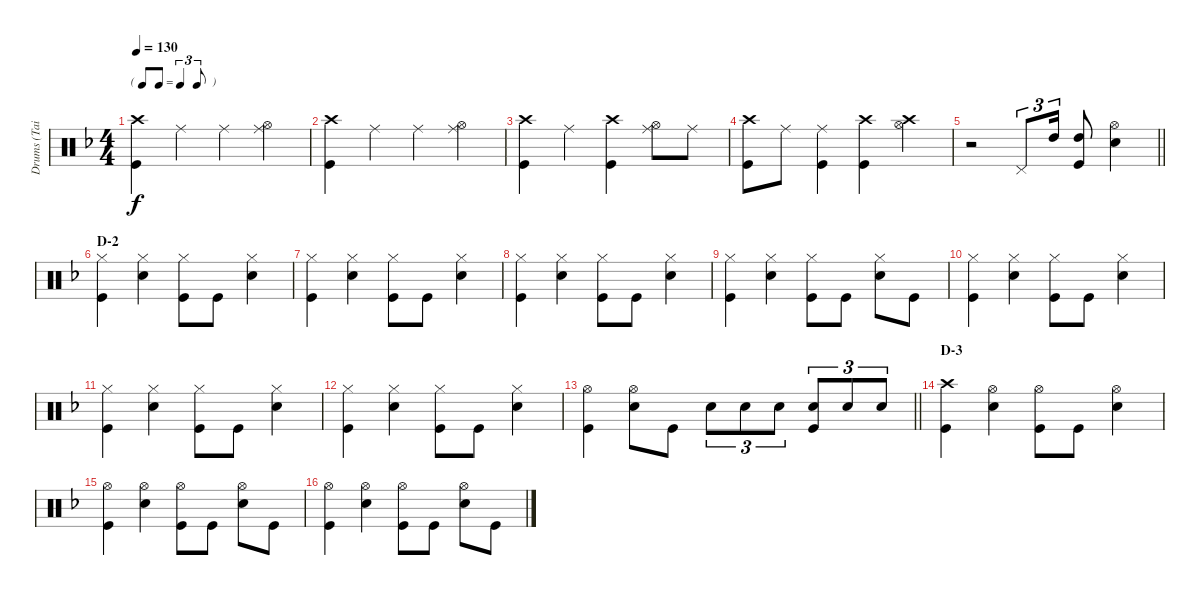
\track ("Drums (Tainaka Ritsu)" "Drums (Tai") {instrument percussion}
\staff {score}
\articulation defaults
\ts (4 4)
\tf triplet8th
\tempo 130
\clef neutral
\ks f
("Crash high (hit)" "Kick (hit)").4{dy f} "Ride (middle)".4 "Ride (middle)".4 ("Ride (middle)" "Hi-Hat (open)").4 |
("Crash high (hit)" "Kick (hit)").4 "Ride (middle)".4 "Ride (middle)".4 ("Ride (middle)" "Hi-Hat (open)").4 |
("Crash high (hit)" "Kick (hit)").4 "Ride (middle)".4 ("Crash high (hit)" "Kick (hit)").4 ("Ride (middle)" "Hi-Hat (open)").8 "Ride (middle)".8 |
("Crash high (hit)" "Kick (hit)").8 "Ride (middle)".8 ("Ride (middle)" "Kick (hit)").4 ("Crash high (hit)" "Kick (hit)").4 ("Crash high (hit)" "Hi-Hat (open)").4 |
\barLineRight lightlight
r.2 "Pedal Hi-Hat (hit)".8{tu (3 2)} "High Tom (hit)".16{tu (3 2)} ("High Tom (hit)" "Kick (hit)").8 ("Hi-Hat (open)" "Snare (hit) 2").4 |
\section ("" "D-2")
("Hi-Hat (closed)" "Kick (hit)").4 ("Hi-Hat (closed)" "Snare (hit) 2").4 ("Hi-Hat (closed)" "Kick (hit)").8 "Kick (hit)".8 ("Hi-Hat (closed)" "Snare (hit) 2").4 |
("Hi-Hat (closed)" "Kick (hit)").4 ("Hi-Hat (closed)" "Snare (hit) 2").4 ("Hi-Hat (closed)" "Kick (hit)").8 "Kick (hit)".8 ("Hi-Hat (closed)" "Snare (hit) 2").4 |
("Hi-Hat (closed)" "Kick (hit)").4 ("Hi-Hat (closed)" "Snare (hit) 2").4 ("Hi-Hat (closed)" "Kick (hit)").8 "Kick (hit)".8 ("Hi-Hat (closed)" "Snare (hit) 2").4 |
("Hi-Hat (closed)" "Kick (hit)").4 ("Hi-Hat (closed)" "Snare (hit) 2").4 ("Hi-Hat (closed)" "Kick (hit)").8 "Kick (hit)".8 ("Hi-Hat (closed)" "Snare (hit) 2").8 "Kick (hit)".8 |
("Hi-Hat (closed)" "Kick (hit)").4 ("Hi-Hat (closed)" "Snare (hit) 2").4 ("Hi-Hat (closed)" "Kick (hit)").8 "Kick (hit)".8 ("Hi-Hat (closed)" "Snare (hit) 2").4 |
("Hi-Hat (closed)" "Kick (hit)").4 ("Hi-Hat (closed)" "Snare (hit) 2").4 ("Hi-Hat (closed)" "Kick (hit)").8 "Kick (hit)".8 ("Hi-Hat (closed)" "Snare (hit) 2").4 |
("Hi-Hat (closed)" "Kick (hit)").4 ("Hi-Hat (closed)" "Snare (hit) 2").4 ("Hi-Hat (closed)" "Kick (hit)").8 "Kick (hit)".8 ("Hi-Hat (closed)" "Snare (hit) 2").4 |
\barLineRight lightlight
("Hi-Hat (open)" "Kick (hit)").4 ("Hi-Hat (open)" "Snare (hit) 2").8 "Kick (hit)".8 "Snare (hit) 2".8{tu (3 2)} "Snare (hit) 2".8{tu (3 2)} "Snare (hit) 2".8{tu (3 2)} ("Snare (hit) 2" "Kick (hit)").8{tu (3 2)} "Snare (hit) 2".8{tu (3 2)} "Snare (hit) 2".8{tu (3 2)} |
\section ("" "D-3")
("Crash high (hit)" "Kick (hit)").4 ("Hi-Hat (open)" "Snare (hit) 2").4 ("Hi-Hat (open)" "Kick (hit)").8 "Kick (hit)".8 ("Hi-Hat (open)" "Snare (hit) 2").4 |
("Hi-Hat (open)" "Kick (hit)").4 ("Hi-Hat (open)" "Snare (hit) 2").4 ("Hi-Hat (open)" "Kick (hit)").8 "Kick (hit)".8 ("Hi-Hat (open)" "Snare (hit) 2").8 "Kick (hit)".8 |
("Hi-Hat (open)" "Kick (hit)").4 ("Hi-Hat (open)" "Snare (hit) 2").4 ("Hi-Hat (open)" "Kick (hit)").8 "Kick (hit)".8 ("Hi-Hat (open)" "Snare (hit) 2").8 "Kick (hit)".8
